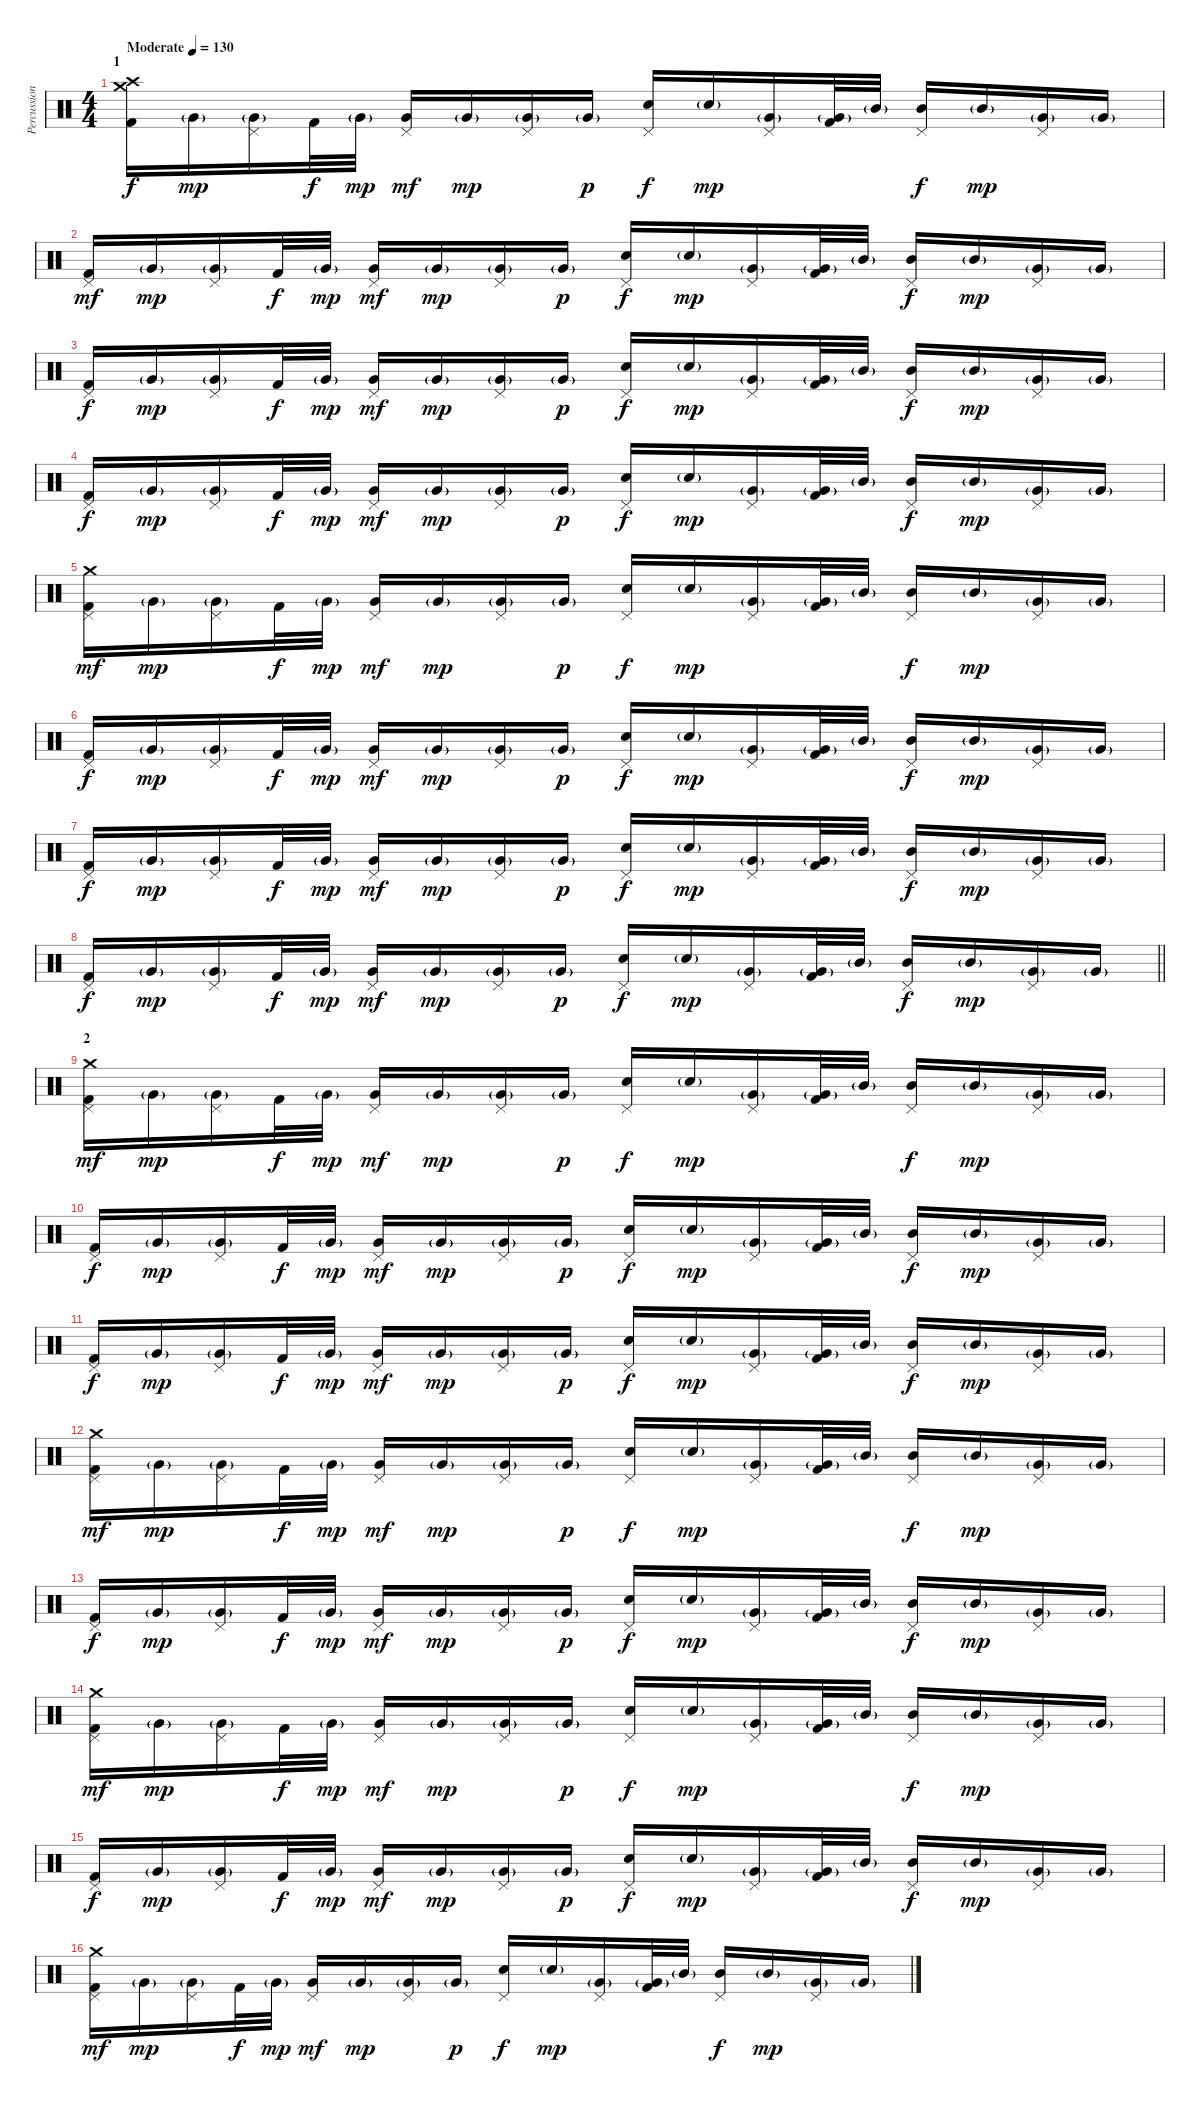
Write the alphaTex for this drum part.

\track ("Percussion" "Percussion") {instrument percussion}
\staff {score}
\articulation defaults
\ts (4 4)
\section ("" "1")
\tempo (130 "Moderate")
\clef neutral
\ks c
("Crash high (hit)" "Crash medium (hit)" "Kick (hit) 2").16{dy f} "Very Low Tom (hit)"{g}.16{dy mp} ("Pedal Hi-Hat (hit)" "Very Low Tom (hit)"{g}).16 "Kick (hit) 2".32{dy f} "Very Low Tom (hit)"{g}.32{dy mp} ("Pedal Hi-Hat (hit)" "Very Low Tom (hit)").16{dy mf} "Very Low Tom (hit)"{g}.16{dy mp} ("Pedal Hi-Hat (hit)" "Very Low Tom (hit)"{g}).16 "Very Low Tom (hit)"{g}.16{dy p} ("Pedal Hi-Hat (hit)" "Snare (hit) 2").16{dy f} "Snare (hit) 2"{g}.16{dy mp} ("Pedal Hi-Hat (hit)" "Very Low Tom (hit)"{g}).16 ("Very Low Tom (hit)"{g} "Kick (hit) 2").32 "Mid Tom (hit)"{g}.32 ("Pedal Hi-Hat (hit)" "Mid Tom (hit)").16{dy f} "Mid Tom (hit)"{g}.16{dy mp} ("Pedal Hi-Hat (hit)" "Very Low Tom (hit)"{g}).16 "Very Low Tom (hit)"{g}.16 |
("Pedal Hi-Hat (hit)" "Kick (hit) 2").16{dy mf} "Very Low Tom (hit)"{g}.16{dy mp} ("Pedal Hi-Hat (hit)" "Very Low Tom (hit)"{g}).16 "Kick (hit) 2".32{dy f} "Very Low Tom (hit)"{g}.32{dy mp} ("Pedal Hi-Hat (hit)" "Very Low Tom (hit)").16{dy mf} "Very Low Tom (hit)"{g}.16{dy mp} ("Pedal Hi-Hat (hit)" "Very Low Tom (hit)"{g}).16 "Very Low Tom (hit)"{g}.16{dy p} ("Pedal Hi-Hat (hit)" "Snare (hit) 2").16{dy f} "Snare (hit) 2"{g}.16{dy mp} ("Pedal Hi-Hat (hit)" "Very Low Tom (hit)"{g}).16 ("Very Low Tom (hit)"{g} "Kick (hit) 2").32 "Mid Tom (hit)"{g}.32 ("Pedal Hi-Hat (hit)" "Mid Tom (hit)").16{dy f} "Mid Tom (hit)"{g}.16{dy mp} ("Pedal Hi-Hat (hit)" "Very Low Tom (hit)"{g}).16 "Very Low Tom (hit)"{g}.16 |
("Pedal Hi-Hat (hit)" "Kick (hit) 2").16{dy f} "Very Low Tom (hit)"{g}.16{dy mp} ("Pedal Hi-Hat (hit)" "Very Low Tom (hit)"{g}).16 "Kick (hit) 2".32{dy f} "Very Low Tom (hit)"{g}.32{dy mp} ("Pedal Hi-Hat (hit)" "Very Low Tom (hit)").16{dy mf} "Very Low Tom (hit)"{g}.16{dy mp} ("Pedal Hi-Hat (hit)" "Very Low Tom (hit)"{g}).16 "Very Low Tom (hit)"{g}.16{dy p} ("Pedal Hi-Hat (hit)" "Snare (hit) 2").16{dy f} "Snare (hit) 2"{g}.16{dy mp} ("Pedal Hi-Hat (hit)" "Very Low Tom (hit)"{g}).16 ("Very Low Tom (hit)"{g} "Kick (hit) 2").32 "Mid Tom (hit)"{g}.32 ("Pedal Hi-Hat (hit)" "Mid Tom (hit)").16{dy f} "Mid Tom (hit)"{g}.16{dy mp} ("Pedal Hi-Hat (hit)" "Very Low Tom (hit)"{g}).16 "Very Low Tom (hit)"{g}.16 |
("Pedal Hi-Hat (hit)" "Kick (hit) 2").16{dy f} "Very Low Tom (hit)"{g}.16{dy mp} ("Pedal Hi-Hat (hit)" "Very Low Tom (hit)"{g}).16 "Kick (hit) 2".32{dy f} "Very Low Tom (hit)"{g}.32{dy mp} ("Pedal Hi-Hat (hit)" "Very Low Tom (hit)").16{dy mf} "Very Low Tom (hit)"{g}.16{dy mp} ("Pedal Hi-Hat (hit)" "Very Low Tom (hit)"{g}).16 "Very Low Tom (hit)"{g}.16{dy p} ("Pedal Hi-Hat (hit)" "Snare (hit) 2").16{dy f} "Snare (hit) 2"{g}.16{dy mp} ("Pedal Hi-Hat (hit)" "Very Low Tom (hit)"{g}).16 ("Very Low Tom (hit)"{g} "Kick (hit) 2").32 "Mid Tom (hit)"{g}.32 ("Pedal Hi-Hat (hit)" "Mid Tom (hit)").16{dy f} "Mid Tom (hit)"{g}.16{dy mp} ("Pedal Hi-Hat (hit)" "Very Low Tom (hit)"{g}).16 "Very Low Tom (hit)"{g}.16 |
("Crash medium (hit)" "Pedal Hi-Hat (hit)" "Kick (hit) 2").16{dy mf} "Very Low Tom (hit)"{g}.16{dy mp} ("Pedal Hi-Hat (hit)" "Very Low Tom (hit)"{g}).16 "Kick (hit) 2".32{dy f} "Very Low Tom (hit)"{g}.32{dy mp} ("Pedal Hi-Hat (hit)" "Very Low Tom (hit)").16{dy mf} "Very Low Tom (hit)"{g}.16{dy mp} ("Pedal Hi-Hat (hit)" "Very Low Tom (hit)"{g}).16 "Very Low Tom (hit)"{g}.16{dy p} ("Pedal Hi-Hat (hit)" "Snare (hit) 2").16{dy f} "Snare (hit) 2"{g}.16{dy mp} ("Pedal Hi-Hat (hit)" "Very Low Tom (hit)"{g}).16 ("Very Low Tom (hit)"{g} "Kick (hit) 2").32 "Mid Tom (hit)"{g}.32 ("Pedal Hi-Hat (hit)" "Mid Tom (hit)").16{dy f} "Mid Tom (hit)"{g}.16{dy mp} ("Pedal Hi-Hat (hit)" "Very Low Tom (hit)"{g}).16 "Very Low Tom (hit)"{g}.16 |
("Pedal Hi-Hat (hit)" "Kick (hit) 2").16{dy f} "Very Low Tom (hit)"{g}.16{dy mp} ("Pedal Hi-Hat (hit)" "Very Low Tom (hit)"{g}).16 "Kick (hit) 2".32{dy f} "Very Low Tom (hit)"{g}.32{dy mp} ("Pedal Hi-Hat (hit)" "Very Low Tom (hit)").16{dy mf} "Very Low Tom (hit)"{g}.16{dy mp} ("Pedal Hi-Hat (hit)" "Very Low Tom (hit)"{g}).16 "Very Low Tom (hit)"{g}.16{dy p} ("Pedal Hi-Hat (hit)" "Snare (hit) 2").16{dy f} "Snare (hit) 2"{g}.16{dy mp} ("Pedal Hi-Hat (hit)" "Very Low Tom (hit)"{g}).16 ("Very Low Tom (hit)"{g} "Kick (hit) 2").32 "Mid Tom (hit)"{g}.32 ("Pedal Hi-Hat (hit)" "Mid Tom (hit)").16{dy f} "Mid Tom (hit)"{g}.16{dy mp} ("Pedal Hi-Hat (hit)" "Very Low Tom (hit)"{g}).16 "Very Low Tom (hit)"{g}.16 |
("Pedal Hi-Hat (hit)" "Kick (hit) 2").16{dy f} "Very Low Tom (hit)"{g}.16{dy mp} ("Pedal Hi-Hat (hit)" "Very Low Tom (hit)"{g}).16 "Kick (hit) 2".32{dy f} "Very Low Tom (hit)"{g}.32{dy mp} ("Pedal Hi-Hat (hit)" "Very Low Tom (hit)").16{dy mf} "Very Low Tom (hit)"{g}.16{dy mp} ("Pedal Hi-Hat (hit)" "Very Low Tom (hit)"{g}).16 "Very Low Tom (hit)"{g}.16{dy p} ("Pedal Hi-Hat (hit)" "Snare (hit) 2").16{dy f} "Snare (hit) 2"{g}.16{dy mp} ("Pedal Hi-Hat (hit)" "Very Low Tom (hit)"{g}).16 ("Very Low Tom (hit)"{g} "Kick (hit) 2").32 "Mid Tom (hit)"{g}.32 ("Pedal Hi-Hat (hit)" "Mid Tom (hit)").16{dy f} "Mid Tom (hit)"{g}.16{dy mp} ("Pedal Hi-Hat (hit)" "Very Low Tom (hit)"{g}).16 "Very Low Tom (hit)"{g}.16 |
\barLineRight lightlight
("Pedal Hi-Hat (hit)" "Kick (hit) 2").16{dy f} "Very Low Tom (hit)"{g}.16{dy mp} ("Pedal Hi-Hat (hit)" "Very Low Tom (hit)"{g}).16 "Kick (hit) 2".32{dy f} "Very Low Tom (hit)"{g}.32{dy mp} ("Pedal Hi-Hat (hit)" "Very Low Tom (hit)").16{dy mf} "Very Low Tom (hit)"{g}.16{dy mp} ("Pedal Hi-Hat (hit)" "Very Low Tom (hit)"{g}).16 "Very Low Tom (hit)"{g}.16{dy p} ("Pedal Hi-Hat (hit)" "Snare (hit) 2").16{dy f} "Snare (hit) 2"{g}.16{dy mp} ("Pedal Hi-Hat (hit)" "Very Low Tom (hit)"{g}).16 ("Very Low Tom (hit)"{g} "Kick (hit) 2").32 "Mid Tom (hit)"{g}.32 ("Pedal Hi-Hat (hit)" "Mid Tom (hit)").16{dy f} "Mid Tom (hit)"{g}.16{dy mp} ("Pedal Hi-Hat (hit)" "Very Low Tom (hit)"{g}).16 "Very Low Tom (hit)"{g}.16 |
\section ("" "2")
("Crash medium (hit)" "Pedal Hi-Hat (hit)" "Kick (hit) 2").16{dy mf} "Very Low Tom (hit)"{g}.16{dy mp} ("Pedal Hi-Hat (hit)" "Very Low Tom (hit)"{g}).16 "Kick (hit) 2".32{dy f} "Very Low Tom (hit)"{g}.32{dy mp} ("Pedal Hi-Hat (hit)" "Very Low Tom (hit)").16{dy mf} "Very Low Tom (hit)"{g}.16{dy mp} ("Pedal Hi-Hat (hit)" "Very Low Tom (hit)"{g}).16 "Very Low Tom (hit)"{g}.16{dy p} ("Pedal Hi-Hat (hit)" "Snare (hit) 2").16{dy f} "Snare (hit) 2"{g}.16{dy mp} ("Pedal Hi-Hat (hit)" "Very Low Tom (hit)"{g}).16 ("Very Low Tom (hit)"{g} "Kick (hit) 2").32 "Mid Tom (hit)"{g}.32 ("Pedal Hi-Hat (hit)" "Mid Tom (hit)").16{dy f} "Mid Tom (hit)"{g}.16{dy mp} ("Pedal Hi-Hat (hit)" "Very Low Tom (hit)"{g}).16 "Very Low Tom (hit)"{g}.16 |
("Pedal Hi-Hat (hit)" "Kick (hit) 2").16{dy f} "Very Low Tom (hit)"{g}.16{dy mp} ("Pedal Hi-Hat (hit)" "Very Low Tom (hit)"{g}).16 "Kick (hit) 2".32{dy f} "Very Low Tom (hit)"{g}.32{dy mp} ("Pedal Hi-Hat (hit)" "Very Low Tom (hit)").16{dy mf} "Very Low Tom (hit)"{g}.16{dy mp} ("Pedal Hi-Hat (hit)" "Very Low Tom (hit)"{g}).16 "Very Low Tom (hit)"{g}.16{dy p} ("Pedal Hi-Hat (hit)" "Snare (hit) 2").16{dy f} "Snare (hit) 2"{g}.16{dy mp} ("Pedal Hi-Hat (hit)" "Very Low Tom (hit)"{g}).16 ("Very Low Tom (hit)"{g} "Kick (hit) 2").32 "Mid Tom (hit)"{g}.32 ("Pedal Hi-Hat (hit)" "Mid Tom (hit)").16{dy f} "Mid Tom (hit)"{g}.16{dy mp} ("Pedal Hi-Hat (hit)" "Very Low Tom (hit)"{g}).16 "Very Low Tom (hit)"{g}.16 |
("Pedal Hi-Hat (hit)" "Kick (hit) 2").16{dy f} "Very Low Tom (hit)"{g}.16{dy mp} ("Pedal Hi-Hat (hit)" "Very Low Tom (hit)"{g}).16 "Kick (hit) 2".32{dy f} "Very Low Tom (hit)"{g}.32{dy mp} ("Pedal Hi-Hat (hit)" "Very Low Tom (hit)").16{dy mf} "Very Low Tom (hit)"{g}.16{dy mp} ("Pedal Hi-Hat (hit)" "Very Low Tom (hit)"{g}).16 "Very Low Tom (hit)"{g}.16{dy p} ("Pedal Hi-Hat (hit)" "Snare (hit) 2").16{dy f} "Snare (hit) 2"{g}.16{dy mp} ("Pedal Hi-Hat (hit)" "Very Low Tom (hit)"{g}).16 ("Very Low Tom (hit)"{g} "Kick (hit) 2").32 "Mid Tom (hit)"{g}.32 ("Pedal Hi-Hat (hit)" "Mid Tom (hit)").16{dy f} "Mid Tom (hit)"{g}.16{dy mp} ("Pedal Hi-Hat (hit)" "Very Low Tom (hit)"{g}).16 "Very Low Tom (hit)"{g}.16 |
("Crash medium (hit)" "Pedal Hi-Hat (hit)" "Kick (hit) 2").16{dy mf} "Very Low Tom (hit)"{g}.16{dy mp} ("Pedal Hi-Hat (hit)" "Very Low Tom (hit)"{g}).16 "Kick (hit) 2".32{dy f} "Very Low Tom (hit)"{g}.32{dy mp} ("Pedal Hi-Hat (hit)" "Very Low Tom (hit)").16{dy mf} "Very Low Tom (hit)"{g}.16{dy mp} ("Pedal Hi-Hat (hit)" "Very Low Tom (hit)"{g}).16 "Very Low Tom (hit)"{g}.16{dy p} ("Pedal Hi-Hat (hit)" "Snare (hit) 2").16{dy f} "Snare (hit) 2"{g}.16{dy mp} ("Pedal Hi-Hat (hit)" "Very Low Tom (hit)"{g}).16 ("Very Low Tom (hit)"{g} "Kick (hit) 2").32 "Mid Tom (hit)"{g}.32 ("Pedal Hi-Hat (hit)" "Mid Tom (hit)").16{dy f} "Mid Tom (hit)"{g}.16{dy mp} ("Pedal Hi-Hat (hit)" "Very Low Tom (hit)"{g}).16 "Very Low Tom (hit)"{g}.16 |
("Pedal Hi-Hat (hit)" "Kick (hit) 2").16{dy f} "Very Low Tom (hit)"{g}.16{dy mp} ("Pedal Hi-Hat (hit)" "Very Low Tom (hit)"{g}).16 "Kick (hit) 2".32{dy f} "Very Low Tom (hit)"{g}.32{dy mp} ("Pedal Hi-Hat (hit)" "Very Low Tom (hit)").16{dy mf} "Very Low Tom (hit)"{g}.16{dy mp} ("Pedal Hi-Hat (hit)" "Very Low Tom (hit)"{g}).16 "Very Low Tom (hit)"{g}.16{dy p} ("Pedal Hi-Hat (hit)" "Snare (hit) 2").16{dy f} "Snare (hit) 2"{g}.16{dy mp} ("Pedal Hi-Hat (hit)" "Very Low Tom (hit)"{g}).16 ("Very Low Tom (hit)"{g} "Kick (hit) 2").32 "Mid Tom (hit)"{g}.32 ("Pedal Hi-Hat (hit)" "Mid Tom (hit)").16{dy f} "Mid Tom (hit)"{g}.16{dy mp} ("Pedal Hi-Hat (hit)" "Very Low Tom (hit)"{g}).16 "Very Low Tom (hit)"{g}.16 |
("Crash medium (hit)" "Pedal Hi-Hat (hit)" "Kick (hit) 2").16{dy mf} "Very Low Tom (hit)"{g}.16{dy mp} ("Pedal Hi-Hat (hit)" "Very Low Tom (hit)"{g}).16 "Kick (hit) 2".32{dy f} "Very Low Tom (hit)"{g}.32{dy mp} ("Pedal Hi-Hat (hit)" "Very Low Tom (hit)").16{dy mf} "Very Low Tom (hit)"{g}.16{dy mp} ("Pedal Hi-Hat (hit)" "Very Low Tom (hit)"{g}).16 "Very Low Tom (hit)"{g}.16{dy p} ("Pedal Hi-Hat (hit)" "Snare (hit) 2").16{dy f} "Snare (hit) 2"{g}.16{dy mp} ("Pedal Hi-Hat (hit)" "Very Low Tom (hit)"{g}).16 ("Very Low Tom (hit)"{g} "Kick (hit) 2").32 "Mid Tom (hit)"{g}.32 ("Pedal Hi-Hat (hit)" "Mid Tom (hit)").16{dy f} "Mid Tom (hit)"{g}.16{dy mp} ("Pedal Hi-Hat (hit)" "Very Low Tom (hit)"{g}).16 "Very Low Tom (hit)"{g}.16 |
("Pedal Hi-Hat (hit)" "Kick (hit) 2").16{dy f} "Very Low Tom (hit)"{g}.16{dy mp} ("Pedal Hi-Hat (hit)" "Very Low Tom (hit)"{g}).16 "Kick (hit) 2".32{dy f} "Very Low Tom (hit)"{g}.32{dy mp} ("Pedal Hi-Hat (hit)" "Very Low Tom (hit)").16{dy mf} "Very Low Tom (hit)"{g}.16{dy mp} ("Pedal Hi-Hat (hit)" "Very Low Tom (hit)"{g}).16 "Very Low Tom (hit)"{g}.16{dy p} ("Pedal Hi-Hat (hit)" "Snare (hit) 2").16{dy f} "Snare (hit) 2"{g}.16{dy mp} ("Pedal Hi-Hat (hit)" "Very Low Tom (hit)"{g}).16 ("Very Low Tom (hit)"{g} "Kick (hit) 2").32 "Mid Tom (hit)"{g}.32 ("Pedal Hi-Hat (hit)" "Mid Tom (hit)").16{dy f} "Mid Tom (hit)"{g}.16{dy mp} ("Pedal Hi-Hat (hit)" "Very Low Tom (hit)"{g}).16 "Very Low Tom (hit)"{g}.16 |
("Crash medium (hit)" "Pedal Hi-Hat (hit)" "Kick (hit) 2").16{dy mf} "Very Low Tom (hit)"{g}.16{dy mp} ("Pedal Hi-Hat (hit)" "Very Low Tom (hit)"{g}).16 "Kick (hit) 2".32{dy f} "Very Low Tom (hit)"{g}.32{dy mp} ("Pedal Hi-Hat (hit)" "Very Low Tom (hit)").16{dy mf} "Very Low Tom (hit)"{g}.16{dy mp} ("Pedal Hi-Hat (hit)" "Very Low Tom (hit)"{g}).16 "Very Low Tom (hit)"{g}.16{dy p} ("Pedal Hi-Hat (hit)" "Snare (hit) 2").16{dy f} "Snare (hit) 2"{g}.16{dy mp} ("Pedal Hi-Hat (hit)" "Very Low Tom (hit)"{g}).16 ("Very Low Tom (hit)"{g} "Kick (hit) 2").32 "Mid Tom (hit)"{g}.32 ("Pedal Hi-Hat (hit)" "Mid Tom (hit)").16{dy f} "Mid Tom (hit)"{g}.16{dy mp} ("Pedal Hi-Hat (hit)" "Very Low Tom (hit)"{g}).16 "Very Low Tom (hit)"{g}.16
